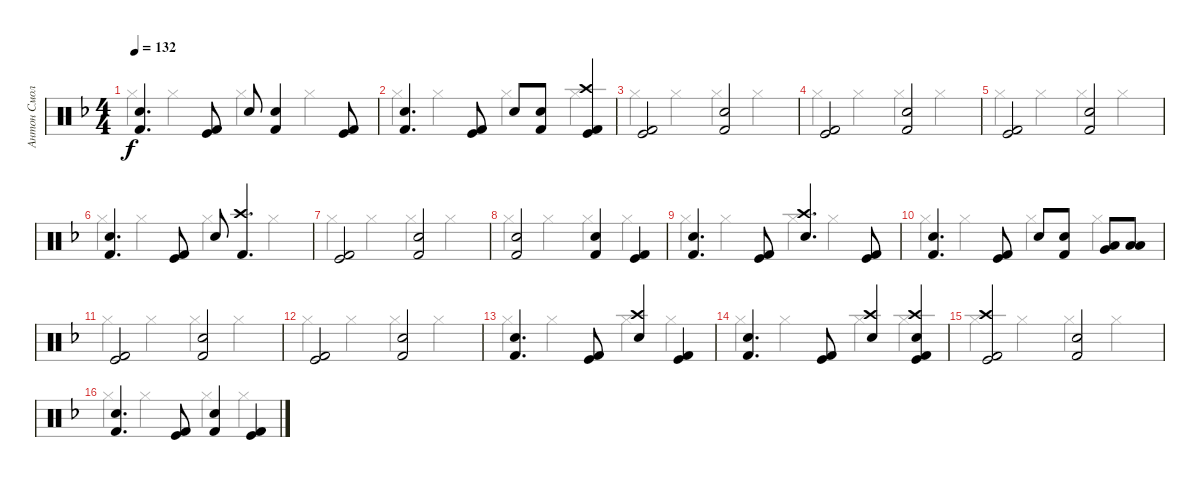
\track ("Антон Смольянин" "Антон Смол") {instrument percussion}
\staff {score}
\articulation defaults
\voice
\ts (4 4)
\tempo 132
\clef neutral
\ks f
("Kick (hit) 2" "Snare (hit) 2").4{d dy f} ("Kick (hit) 2" "Kick (hit)").8 "Snare (hit) 2".8 ("Kick (hit) 2" "Snare (hit) 2").4 ("Kick (hit) 2" "Kick (hit)").8 |
("Kick (hit) 2" "Snare (hit) 2").4{d} ("Kick (hit) 2" "Kick (hit)").8 "Snare (hit) 2".8 ("Kick (hit) 2" "Snare (hit) 2").8 ("Kick (hit) 2" "Kick (hit)" "Crash high (hit)").4 |
("Kick (hit) 2" "Kick (hit)").2 ("Kick (hit) 2" "Snare (hit) 2").2 |
("Kick (hit) 2" "Kick (hit)").2 ("Kick (hit) 2" "Snare (hit) 2").2 |
("Kick (hit) 2" "Kick (hit)").2 ("Kick (hit) 2" "Snare (hit) 2").2 |
("Kick (hit) 2" "Snare (hit) 2").4{d} ("Kick (hit) 2" "Kick (hit)").8 "Snare (hit) 2".8 ("Kick (hit) 2" "Crash high (hit)").4{d} |
("Kick (hit) 2" "Kick (hit)").2 ("Kick (hit) 2" "Snare (hit) 2").2 |
("Kick (hit) 2" "Snare (hit) 2").2 ("Kick (hit) 2" "Snare (hit) 2").4 ("Kick (hit) 2" "Kick (hit)").4 |
("Kick (hit) 2" "Snare (hit) 2").4{d} ("Kick (hit) 2" "Kick (hit)").8 ("Snare (hit) 2" "Crash high (hit)").4{d} ("Kick (hit) 2" "Kick (hit)").8 |
("Kick (hit) 2" "Snare (hit) 2").4{d} ("Kick (hit) 2" "Kick (hit)").8 "Snare (hit) 2".8 ("Kick (hit) 2" "Snare (hit) 2").8 ("Low Tom (hit)" "Very Low Tom (hit)").8 ("Low Tom (hit)" "Low Floor Tom (hit)").8 |
("Kick (hit) 2" "Kick (hit)").2 ("Kick (hit) 2" "Snare (hit) 2").2 |
("Kick (hit) 2" "Kick (hit)").2 ("Kick (hit) 2" "Snare (hit) 2").2 |
("Kick (hit) 2" "Snare (hit) 2").4{d} ("Kick (hit) 2" "Kick (hit)").8 ("Snare (hit) 2" "Crash high (hit)").4 ("Kick (hit) 2" "Kick (hit)").4 |
("Kick (hit) 2" "Snare (hit) 2").4{d} ("Kick (hit) 2" "Kick (hit)").8 ("Snare (hit) 2" "Crash high (hit)").4 ("Kick (hit) 2" "Kick (hit)" "Snare (hit) 2" "Crash high (hit)").4 |
("Kick (hit) 2" "Kick (hit)" "Crash high (hit)").2 ("Kick (hit) 2" "Snare (hit) 2").2 |
("Kick (hit) 2" "Snare (hit) 2").4{d} ("Kick (hit) 2" "Kick (hit)").8 ("Kick (hit) 2" "Snare (hit) 2").4 ("Kick (hit) 2" "Kick (hit)").4
\voice
\clef neutral
\ottava regular
\simile none
\ks f "Hi-Hat (closed)".4{dy f} "Hi-Hat (closed)".4 "Hi-Hat (closed)".4 "Hi-Hat (closed)".4
|
"Hi-Hat (closed)".4 "Hi-Hat (closed)".4 "Hi-Hat (closed)".4 "Hi-Hat (closed)".4 |
"Hi-Hat (closed)".4 "Hi-Hat (closed)".4 "Hi-Hat (closed)".4 "Hi-Hat (closed)".4 |
"Hi-Hat (closed)".4 "Hi-Hat (closed)".4 "Hi-Hat (closed)".4 "Hi-Hat (closed)".4 |
"Hi-Hat (closed)".4 "Hi-Hat (closed)".4 "Hi-Hat (closed)".4 "Hi-Hat (closed)".4 |
"Hi-Hat (closed)".4 "Hi-Hat (closed)".4 "Hi-Hat (closed)".4 "Hi-Hat (closed)".4 |
"Hi-Hat (closed)".4 "Hi-Hat (closed)".4 "Hi-Hat (closed)".4 "Hi-Hat (closed)".4 |
"Hi-Hat (closed)".4 "Hi-Hat (closed)".4 "Hi-Hat (closed)".4 "Hi-Hat (closed)".4 |
"Hi-Hat (closed)".4 "Hi-Hat (closed)".4 "Hi-Hat (closed)".4 "Hi-Hat (closed)".4 |
"Hi-Hat (closed)".4 "Hi-Hat (closed)".4 "Hi-Hat (closed)".4 "Hi-Hat (closed)".4 |
"Hi-Hat (closed)".4 "Hi-Hat (closed)".4 "Hi-Hat (closed)".4 "Hi-Hat (closed)".4 |
"Hi-Hat (closed)".4 "Hi-Hat (closed)".4 "Hi-Hat (closed)".4 "Hi-Hat (closed)".4 |
"Hi-Hat (closed)".4 "Hi-Hat (closed)".4 "Hi-Hat (closed)".4 "Hi-Hat (closed)".4 |
"Hi-Hat (closed)".4 "Hi-Hat (closed)".4 "Hi-Hat (closed)".4 "Hi-Hat (closed)".4 |
"Hi-Hat (closed)".4 "Hi-Hat (closed)".4 "Hi-Hat (closed)".4 "Hi-Hat (closed)".4 |
"Hi-Hat (closed)".4 "Hi-Hat (closed)".4 "Hi-Hat (closed)".4 "Hi-Hat (closed)".4
